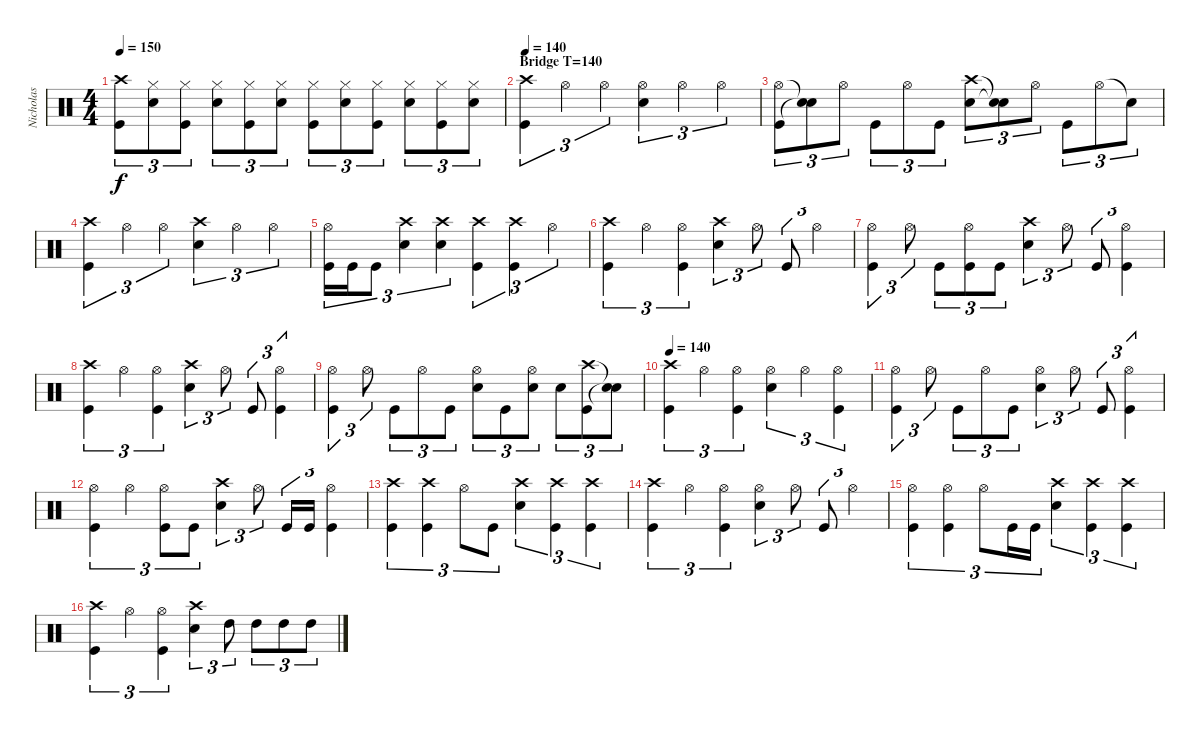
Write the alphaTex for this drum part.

\track ("Nicholas" "Nicholas") {instrument percussion}
\staff {score}
\articulation defaults
\ts (4 4)
\tempo 150
\clef neutral
\ks c
("Crash high (hit)" "Kick (hit)").8{tu (3 2) dy f} ("Hi-Hat (closed)" "Electric Snare (hit)").8{tu (3 2)} ("Hi-Hat (closed)" "Kick (hit)").8{tu (3 2)} ("Hi-Hat (closed)" "Electric Snare (hit)").8{tu (3 2)} ("Hi-Hat (closed)" "Kick (hit)").8{tu (3 2)} ("Hi-Hat (closed)" "Electric Snare (hit)").8{tu (3 2)} ("Hi-Hat (closed)" "Kick (hit)").8{tu (3 2)} ("Hi-Hat (closed)" "Electric Snare (hit)").8{tu (3 2)} ("Hi-Hat (closed)" "Kick (hit)").8{tu (3 2)} ("Hi-Hat (closed)" "Electric Snare (hit)").8{tu (3 2)} ("Hi-Hat (closed)" "Kick (hit)").8{tu (3 2)} ("Hi-Hat (closed)" "Electric Snare (hit)").8{tu (3 2)} |
\section ("" "Bridge T=140")
\tempo 140
("Crash high (hit)" "Kick (hit)").4{tu (3 2)} "Hi-Hat (open)".4{tu (3 2)} "Hi-Hat (open)".4{tu (3 2)} ("Hi-Hat (open)" "Electric Snare (hit)").4{tu (3 2)} "Hi-Hat (open)".4{tu (3 2)} "Hi-Hat (open)".4{tu (3 2)} |
("Hi-Hat (open)" "Kick (hit)").8{tu (3 2)} ("Snare (hit)"{t} "Snare (hit)"{t}).8{tu (3 2)} "Hi-Hat (open)".8{tu (3 2)} "Kick (hit)".8{tu (3 2)} "Hi-Hat (open)".8{tu (3 2)} "Kick (hit)".8{tu (3 2)} ("Crash high (hit)" "Electric Snare (hit)").8{tu (3 2)} ("Snare (hit)"{t} "Snare (hit)"{t}).8{tu (3 2)} "Hi-Hat (open)".8{tu (3 2)} "Kick (hit)".8{tu (3 2)} "Hi-Hat (open)".8{tu (3 2)} "Snare (hit)"{t}.8{tu (3 2)} |
("Crash high (hit)" "Kick (hit)").4{tu (3 2)} "Hi-Hat (open)".4{tu (3 2)} "Hi-Hat (open)".4{tu (3 2)} ("Crash high (hit)" "Electric Snare (hit)").4{tu (3 2)} "Hi-Hat (open)".4{tu (3 2)} "Hi-Hat (open)".4{tu (3 2)} |
("Hi-Hat (open)" "Kick (hit)").16{tu (3 2)} "Kick (hit)".16{tu (3 2)} "Kick (hit)".8{tu (3 2)} ("Crash high (hit)" "Electric Snare (hit)").4{tu (3 2)} ("Crash high (hit)" "Electric Snare (hit)").4{tu (3 2)} ("Crash high (hit)" "Kick (hit)").4{tu (3 2)} ("Crash high (hit)" "Kick (hit)").4{tu (3 2)} "Hi-Hat (open)".4{tu (3 2)} |
("Crash high (hit)" "Kick (hit)").4{tu (3 2)} "Hi-Hat (open)".4{tu (3 2)} ("Hi-Hat (open)" "Kick (hit)").4{tu (3 2)} ("Crash high (hit)" "Electric Snare (hit)").4{tu (3 2)} "Hi-Hat (open)".8{tu (3 2)} "Kick (hit)".8{tu (3 2)} "Hi-Hat (open)".4{tu (3 2)} |
("Hi-Hat (open)" "Kick (hit)").4{tu (3 2)} "Hi-Hat (open)".8{tu (3 2)} "Kick (hit)".8{tu (3 2)} ("Hi-Hat (open)" "Kick (hit)").8{tu (3 2)} "Kick (hit)".8{tu (3 2)} ("Crash high (hit)" "Electric Snare (hit)").4{tu (3 2)} "Hi-Hat (open)".8{tu (3 2)} "Kick (hit)".8{tu (3 2)} ("Hi-Hat (open)" "Kick (hit)").4{tu (3 2)} |
("Crash high (hit)" "Kick (hit)").4{tu (3 2)} "Hi-Hat (open)".4{tu (3 2)} ("Hi-Hat (open)" "Kick (hit)").4{tu (3 2)} ("Crash high (hit)" "Electric Snare (hit)").4{tu (3 2)} "Hi-Hat (open)".8{tu (3 2)} "Kick (hit)".8{tu (3 2)} ("Hi-Hat (open)" "Kick (hit)").4{tu (3 2)} |
("Hi-Hat (open)" "Kick (hit)").4{tu (3 2)} "Hi-Hat (open)".8{tu (3 2)} "Kick (hit)".8{tu (3 2)} "Hi-Hat (open)".8{tu (3 2)} "Kick (hit)".8{tu (3 2)} ("Hi-Hat (open)" "Electric Snare (hit)").8{tu (3 2)} "Kick (hit)".8{tu (3 2)} ("Hi-Hat (open)" "Electric Snare (hit)").8{tu (3 2)} "Electric Snare (hit)".8{tu (3 2)} ("Crash high (hit)" "Kick (hit)").8{tu (3 2)} ("Snare (hit)"{t} "Snare (hit)"{t}).8{tu (3 2)} |
\tempo 140
("Crash high (hit)" "Kick (hit)").4{tu (3 2)} "Hi-Hat (open)".4{tu (3 2)} ("Hi-Hat (open)" "Kick (hit)").4{tu (3 2)} ("Hi-Hat (open)" "Electric Snare (hit)").4{tu (3 2)} "Hi-Hat (open)".4{tu (3 2)} ("Hi-Hat (open)" "Kick (hit)").4{tu (3 2)} |
("Hi-Hat (open)" "Kick (hit)").4{tu (3 2)} "Hi-Hat (open)".8{tu (3 2)} "Kick (hit)".8{tu (3 2)} "Hi-Hat (open)".8{tu (3 2)} "Kick (hit)".8{tu (3 2)} ("Hi-Hat (open)" "Electric Snare (hit)").4{tu (3 2)} "Hi-Hat (open)".8{tu (3 2)} "Kick (hit)".8{tu (3 2)} ("Hi-Hat (open)" "Kick (hit)").4{tu (3 2)} |
("Hi-Hat (open)" "Kick (hit)").4{tu (3 2)} "Hi-Hat (open)".4{tu (3 2)} ("Hi-Hat (open)" "Kick (hit)").8{tu (3 2)} "Kick (hit)".8{tu (3 2)} ("Crash high (hit)" "Electric Snare (hit)").4{tu (3 2)} "Hi-Hat (open)".8{tu (3 2)} "Kick (hit)".16{tu (3 2)} "Kick (hit)".16{tu (3 2)} ("Hi-Hat (open)" "Kick (hit)").4{tu (3 2)} |
("Crash high (hit)" "Kick (hit)").4{tu (3 2)} ("Crash high (hit)" "Kick (hit)").4{tu (3 2)} "Hi-Hat (open)".8{tu (3 2)} "Kick (hit)".8{tu (3 2)} ("Crash high (hit)" "Electric Snare (hit)").4{tu (3 2)} ("Crash high (hit)" "Kick (hit)").4{tu (3 2)} ("Crash high (hit)" "Kick (hit)").4{tu (3 2)} |
("Crash high (hit)" "Kick (hit)").4{tu (3 2)} "Hi-Hat (open)".4{tu (3 2)} ("Hi-Hat (open)" "Kick (hit)").4{tu (3 2)} ("Hi-Hat (open)" "Electric Snare (hit)").4{tu (3 2)} "Hi-Hat (open)".8{tu (3 2)} "Kick (hit)".8{tu (3 2)} "Hi-Hat (open)".4{tu (3 2)} |
("Hi-Hat (open)" "Kick (hit)").4{tu (3 2)} ("Hi-Hat (open)" "Kick (hit)").4{tu (3 2)} "Hi-Hat (open)".8{tu (3 2)} "Kick (hit)".16{tu (3 2)} "Kick (hit)".16{tu (3 2)} ("Crash high (hit)" "Electric Snare (hit)").4{tu (3 2)} ("Crash high (hit)" "Kick (hit)").4{tu (3 2)} ("Crash high (hit)" "Kick (hit)").4{tu (3 2)} |
("Crash high (hit)" "Kick (hit)").4{tu (3 2)} "Hi-Hat (open)".4{tu (3 2)} ("Hi-Hat (open)" "Kick (hit)").4{tu (3 2)} ("Crash high (hit)" "Electric Snare (hit)").4{tu (3 2)} "High Tom (hit)".8{tu (3 2)} "High Tom (hit)".8{tu (3 2)} "High Tom (hit)".8{tu (3 2)} "High Tom (hit)".8{tu (3 2)}
